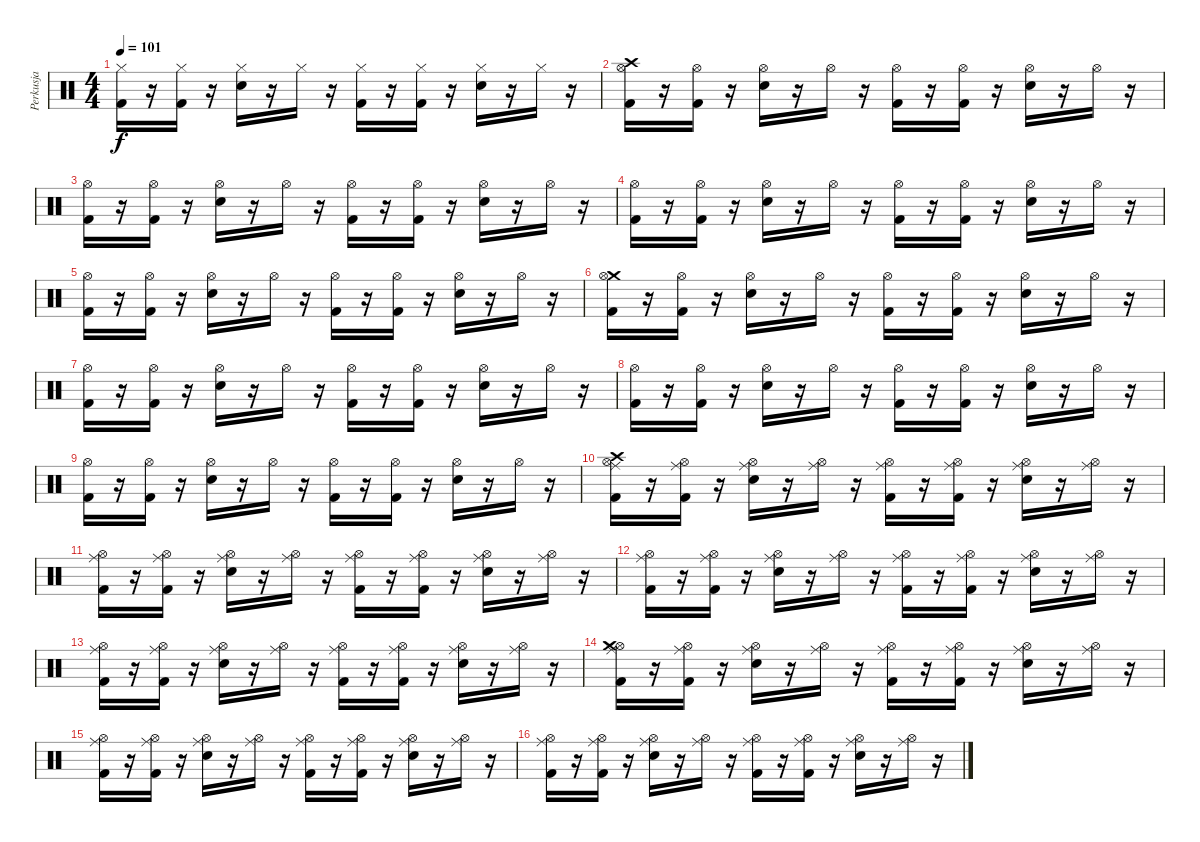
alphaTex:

\track ("Perkusja" "Perkusja") {instrument percussion}
\staff {score}
\articulation defaults
\ts (4 4)
\tempo 101
\clef neutral
\ks c
("Hi-Hat (closed)" "Kick (hit) 2").16{dy f} r.16 ("Hi-Hat (closed)" "Kick (hit) 2").16 r.16 ("Snare (hit) 2" "Hi-Hat (closed)").16 r.16 "Hi-Hat (closed)".16 r.16 ("Kick (hit) 2" "Hi-Hat (closed)").16 r.16 ("Hi-Hat (closed)" "Kick (hit) 2").16 r.16 ("Hi-Hat (closed)" "Snare (hit) 2").16 r.16 "Hi-Hat (closed)".16 r.16 |
("Hi-Hat (open)" "Kick (hit) 2" "Crash high (hit)").16 r.16 ("Kick (hit) 2" "Hi-Hat (open)").16 r.16 ("Snare (hit) 2" "Hi-Hat (open)").16 r.16 "Hi-Hat (open)".16 r.16 ("Hi-Hat (open)" "Kick (hit) 2").16 r.16 ("Hi-Hat (open)" "Kick (hit) 2").16 r.16 ("Hi-Hat (open)" "Snare (hit) 2").16 r.16 "Hi-Hat (open)".16 r.16 |
("Hi-Hat (open)" "Kick (hit) 2").16 r.16 ("Hi-Hat (open)" "Kick (hit) 2").16 r.16 ("Hi-Hat (open)" "Snare (hit) 2").16 r.16 "Hi-Hat (open)".16 r.16 ("Kick (hit) 2" "Hi-Hat (open)").16 r.16 ("Kick (hit) 2" "Hi-Hat (open)").16 r.16 ("Snare (hit) 2" "Hi-Hat (open)").16 r.16 "Hi-Hat (open)".16 r.16 |
("Kick (hit) 2" "Hi-Hat (open)").16 r.16 ("Hi-Hat (open)" "Kick (hit) 2").16 r.16 ("Hi-Hat (open)" "Snare (hit) 2").16 r.16 "Hi-Hat (open)".16 r.16 ("Hi-Hat (open)" "Kick (hit) 2").16 r.16 ("Hi-Hat (open)" "Kick (hit) 2").16 r.16 ("Snare (hit) 2" "Hi-Hat (open)").16 r.16 "Hi-Hat (open)".16 r.16 |
("Hi-Hat (open)" "Kick (hit) 2").16 r.16 ("Hi-Hat (open)" "Kick (hit) 2").16 r.16 ("Hi-Hat (open)" "Snare (hit) 2").16 r.16 "Hi-Hat (open)".16 r.16 ("Kick (hit) 2" "Hi-Hat (open)").16 r.16 ("Kick (hit) 2" "Hi-Hat (open)").16 r.16 ("Hi-Hat (open)" "Snare (hit) 2").16 r.16 "Hi-Hat (open)".16 r.16 |
("Crash medium (hit)" "Hi-Hat (open)" "Kick (hit) 2").16 r.16 ("Hi-Hat (open)" "Kick (hit) 2").16 r.16 ("Hi-Hat (open)" "Snare (hit) 2").16 r.16 "Hi-Hat (open)".16 r.16 ("Hi-Hat (open)" "Kick (hit) 2").16 r.16 ("Kick (hit) 2" "Hi-Hat (open)").16 r.16 ("Hi-Hat (open)" "Snare (hit) 2").16 r.16 "Hi-Hat (open)".16 r.16 |
("Hi-Hat (open)" "Kick (hit) 2").16 r.16 ("Hi-Hat (open)" "Kick (hit) 2").16 r.16 ("Snare (hit) 2" "Hi-Hat (open)").16 r.16 "Hi-Hat (open)".16 r.16 ("Kick (hit) 2" "Hi-Hat (open)").16 r.16 ("Kick (hit) 2" "Hi-Hat (open)").16 r.16 ("Snare (hit) 2" "Hi-Hat (open)").16 r.16 "Hi-Hat (open)".16 r.16 |
("Kick (hit) 2" "Hi-Hat (open)").16 r.16 ("Hi-Hat (open)" "Kick (hit) 2").16 r.16 ("Hi-Hat (open)" "Snare (hit) 2").16 r.16 "Hi-Hat (open)".16 r.16 ("Kick (hit) 2" "Hi-Hat (open)").16 r.16 ("Kick (hit) 2" "Hi-Hat (open)").16 r.16 ("Snare (hit) 2" "Hi-Hat (open)").16 r.16 "Hi-Hat (open)".16 r.16 |
("Kick (hit) 2" "Hi-Hat (open)").16 r.16 ("Kick (hit) 2" "Hi-Hat (open)").16 r.16 ("Snare (hit) 2" "Hi-Hat (open)").16 r.16 "Hi-Hat (open)".16 r.16 ("Hi-Hat (open)" "Kick (hit) 2").16 r.16 ("Kick (hit) 2" "Hi-Hat (open)").16 r.16 ("Hi-Hat (open)" "Snare (hit) 2").16 r.16 "Hi-Hat (open)".16 r.16 |
("Crash high (hit)" "Ride (middle)" "Hi-Hat (open)" "Kick (hit) 2").16 r.16 ("Hi-Hat (open)" "Kick (hit) 2" "Ride (middle)").16 r.16 ("Snare (hit) 2" "Ride (middle)" "Hi-Hat (open)").16 r.16 ("Ride (middle)" "Hi-Hat (open)").16 r.16 ("Hi-Hat (open)" "Kick (hit) 2" "Ride (middle)").16 r.16 ("Ride (middle)" "Hi-Hat (open)" "Kick (hit) 2").16 r.16 ("Hi-Hat (open)" "Snare (hit) 2" "Ride (middle)").16 r.16 ("Ride (middle)" "Hi-Hat (open)").16 r.16 |
("Hi-Hat (open)" "Ride (middle)" "Kick (hit) 2").16 r.16 ("Hi-Hat (open)" "Ride (middle)" "Kick (hit) 2").16 r.16 ("Snare (hit) 2" "Hi-Hat (open)" "Ride (middle)").16 r.16 ("Hi-Hat (open)" "Ride (middle)").16 r.16 ("Hi-Hat (open)" "Ride (middle)" "Kick (hit) 2").16 r.16 ("Ride (middle)" "Hi-Hat (open)" "Kick (hit) 2").16 r.16 ("Ride (middle)" "Hi-Hat (open)" "Snare (hit) 2").16 r.16 ("Hi-Hat (open)" "Ride (middle)").16 r.16 |
("Kick (hit) 2" "Ride (middle)" "Hi-Hat (open)").16 r.16 ("Ride (middle)" "Kick (hit) 2" "Hi-Hat (open)").16 r.16 ("Hi-Hat (open)" "Snare (hit) 2" "Ride (middle)").16 r.16 ("Hi-Hat (open)" "Ride (middle)").16 r.16 ("Kick (hit) 2" "Hi-Hat (open)" "Ride (middle)").16 r.16 ("Hi-Hat (open)" "Ride (middle)" "Kick (hit) 2").16 r.16 ("Snare (hit) 2" "Hi-Hat (open)" "Ride (middle)").16 r.16 ("Hi-Hat (open)" "Ride (middle)").16 r.16 |
("Hi-Hat (open)" "Kick (hit) 2" "Ride (middle)").16 r.16 ("Ride (middle)" "Hi-Hat (open)" "Kick (hit) 2").16 r.16 ("Snare (hit) 2" "Hi-Hat (open)" "Ride (middle)").16 r.16 ("Hi-Hat (open)" "Ride (middle)").16 r.16 ("Kick (hit) 2" "Hi-Hat (open)" "Ride (middle)").16 r.16 ("Ride (middle)" "Kick (hit) 2" "Hi-Hat (open)").16 r.16 ("Hi-Hat (open)" "Snare (hit) 2" "Ride (middle)").16 r.16 ("Ride (middle)" "Hi-Hat (open)").16 r.16 |
("Ride (middle)" "Kick (hit) 2" "Hi-Hat (open)" "Crash medium (hit)").16 r.16 ("Kick (hit) 2" "Ride (middle)" "Hi-Hat (open)").16 r.16 ("Snare (hit) 2" "Ride (middle)" "Hi-Hat (open)").16 r.16 ("Hi-Hat (open)" "Ride (middle)").16 r.16 ("Ride (middle)" "Kick (hit) 2" "Hi-Hat (open)").16 r.16 ("Ride (middle)" "Kick (hit) 2" "Hi-Hat (open)").16 r.16 ("Hi-Hat (open)" "Snare (hit) 2" "Ride (middle)").16 r.16 ("Ride (middle)" "Hi-Hat (open)").16 r.16 |
("Hi-Hat (open)" "Ride (middle)" "Kick (hit) 2").16 r.16 ("Ride (middle)" "Kick (hit) 2" "Hi-Hat (open)").16 r.16 ("Hi-Hat (open)" "Snare (hit) 2" "Ride (middle)").16 r.16 ("Ride (middle)" "Hi-Hat (open)").16 r.16 ("Kick (hit) 2" "Hi-Hat (open)" "Ride (middle)").16 r.16 ("Kick (hit) 2" "Ride (middle)" "Hi-Hat (open)").16 r.16 ("Hi-Hat (open)" "Ride (middle)" "Snare (hit) 2").16 r.16 ("Ride (middle)" "Hi-Hat (open)").16 r.16 |
("Hi-Hat (open)" "Ride (middle)" "Kick (hit) 2").16 r.16 ("Kick (hit) 2" "Ride (middle)" "Hi-Hat (open)").16 r.16 ("Ride (middle)" "Hi-Hat (open)" "Snare (hit) 2").16 r.16 ("Ride (middle)" "Hi-Hat (open)").16 r.16 ("Ride (middle)" "Hi-Hat (open)" "Kick (hit) 2").16 r.16 ("Hi-Hat (open)" "Kick (hit) 2" "Ride (middle)").16 r.16 ("Hi-Hat (open)" "Ride (middle)" "Snare (hit) 2").16 r.16 ("Hi-Hat (open)" "Ride (middle)").16 r.16
